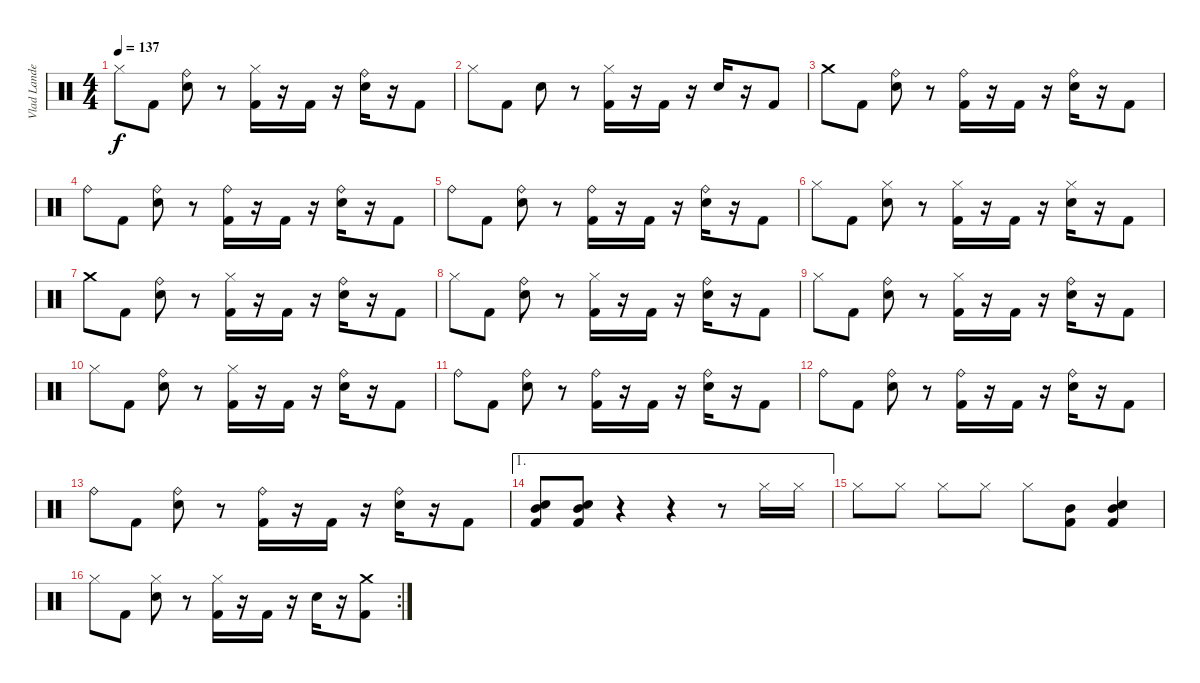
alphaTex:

\track ("Vlad Landeros" "Vlad Lande") {instrument percussion}
\staff {score}
\articulation defaults
\ts (4 4)
\tempo 137
\clef neutral
\ks c "Hi-Hat (closed)".8{dy f} "Kick (hit) 2".8
("Electric Snare (hit)" "Ride (bell)").8 r.8 ("Kick (hit) 2" "Hi-Hat (closed)").16 r.16 "Kick (hit) 2".16 r.16 ("Electric Snare (hit)" "Ride (bell)").16 r.16 "Kick (hit) 2".8 |
"Hi-Hat (closed)".8 "Kick (hit) 2".8 "Electric Snare (hit)".8 r.8 ("Kick (hit) 2" "Hi-Hat (closed)").16 r.16 "Kick (hit) 2".16 r.16 "Electric Snare (hit)".16 r.16 "Kick (hit) 2".8 |
"Crash medium (hit)".8 "Kick (hit) 2".8 ("Electric Snare (hit)" "Ride (bell)").8 r.8 ("Kick (hit) 2" "Ride (bell)").16 r.16 "Kick (hit) 2".16 r.16 ("Electric Snare (hit)" "Ride (bell)").16 r.16 "Kick (hit) 2".8 |
"Ride (bell)".8 "Kick (hit) 2".8 ("Electric Snare (hit)" "Ride (bell)").8 r.8 ("Kick (hit) 2" "Ride (bell)").16 r.16 "Kick (hit) 2".16 r.16 ("Electric Snare (hit)" "Ride (bell)").16 r.16 "Kick (hit) 2".8 |
"Ride (bell)".8 "Kick (hit) 2".8 ("Electric Snare (hit)" "Ride (bell)").8 r.8 ("Kick (hit) 2" "Ride (bell)").16 r.16 "Kick (hit) 2".16 r.16 ("Electric Snare (hit)" "Ride (bell)").16 r.16 "Kick (hit) 2".8 |
"Hi-Hat (closed)".8 "Kick (hit) 2".8 ("Electric Snare (hit)" "Hi-Hat (closed)").8 r.8 ("Kick (hit) 2" "Hi-Hat (closed)").16 r.16 "Kick (hit) 2".16 r.16 ("Electric Snare (hit)" "Hi-Hat (closed)").16 r.16 "Kick (hit) 2".8 |
"Crash medium (hit)".8 "Kick (hit) 2".8 ("Electric Snare (hit)" "Ride (bell)").8 r.8 ("Kick (hit) 2" "Hi-Hat (closed)").16 r.16 "Kick (hit) 2".16 r.16 ("Electric Snare (hit)" "Ride (bell)").16 r.16 "Kick (hit) 2".8 |
"Hi-Hat (closed)".8 "Kick (hit) 2".8 ("Electric Snare (hit)" "Ride (bell)").8 r.8 ("Kick (hit) 2" "Hi-Hat (closed)").16 r.16 "Kick (hit) 2".16 r.16 ("Electric Snare (hit)" "Ride (bell)").16 r.16 "Kick (hit) 2".8 |
"Hi-Hat (closed)".8 "Kick (hit) 2".8 ("Electric Snare (hit)" "Ride (bell)").8 r.8 ("Kick (hit) 2" "Hi-Hat (closed)").16 r.16 "Kick (hit) 2".16 r.16 ("Electric Snare (hit)" "Ride (bell)").16 r.16 "Kick (hit) 2".8 |
"Hi-Hat (closed)".8 "Kick (hit) 2".8 ("Electric Snare (hit)" "Ride (bell)").8 r.8 ("Kick (hit) 2" "Hi-Hat (closed)").16 r.16 "Kick (hit) 2".16 r.16 ("Electric Snare (hit)" "Ride (bell)").16 r.16 "Kick (hit) 2".8 |
"Ride (bell)".8 "Kick (hit) 2".8 ("Electric Snare (hit)" "Ride (bell)").8 r.8 ("Kick (hit) 2" "Ride (bell)").16 r.16 "Kick (hit) 2".16 r.16 ("Electric Snare (hit)" "Ride (bell)").16 r.16 "Kick (hit) 2".8 |
"Ride (bell)".8 "Kick (hit) 2".8 ("Electric Snare (hit)" "Ride (bell)").8 r.8 ("Kick (hit) 2" "Ride (bell)").16 r.16 "Kick (hit) 2".16 r.16 ("Electric Snare (hit)" "Ride (bell)").16 r.16 "Kick (hit) 2".8 |
"Ride (bell)".8 "Kick (hit) 2".8 ("Electric Snare (hit)" "Ride (bell)").8 r.8 ("Kick (hit) 2" "Ride (bell)").16 r.16 "Kick (hit) 2".16 r.16 ("Electric Snare (hit)" "Ride (bell)").16 r.16 "Kick (hit) 2".8 |
\ae 1
("Mid Tom (hit)" "Kick (hit) 2" "Electric Snare (hit)").8 ("Mid Tom (hit)" "Kick (hit) 2" "Electric Snare (hit)").8 r.4 r.4 r.8 "Hi-Hat (closed)".16 "Hi-Hat (closed)".16 |
"Hi-Hat (closed)".8 "Hi-Hat (closed)".8 "Hi-Hat (closed)".8 "Hi-Hat (closed)".8 "Hi-Hat (closed)".8 ("Kick (hit) 2" "Mid Tom (hit)").8 ("Kick (hit) 2" "Mid Tom (hit)" "Electric Snare (hit)").4 |
\rc 2 "Hi-Hat (closed)".8 "Kick (hit) 2".8
("Electric Snare (hit)" "Hi-Hat (closed)").8 r.8 ("Kick (hit) 2" "Hi-Hat (closed)").16 r.16 "Kick (hit) 2".16 r.16 "Electric Snare (hit)".16 r.16 ("Kick (hit) 2" "Crash medium (hit)").8
